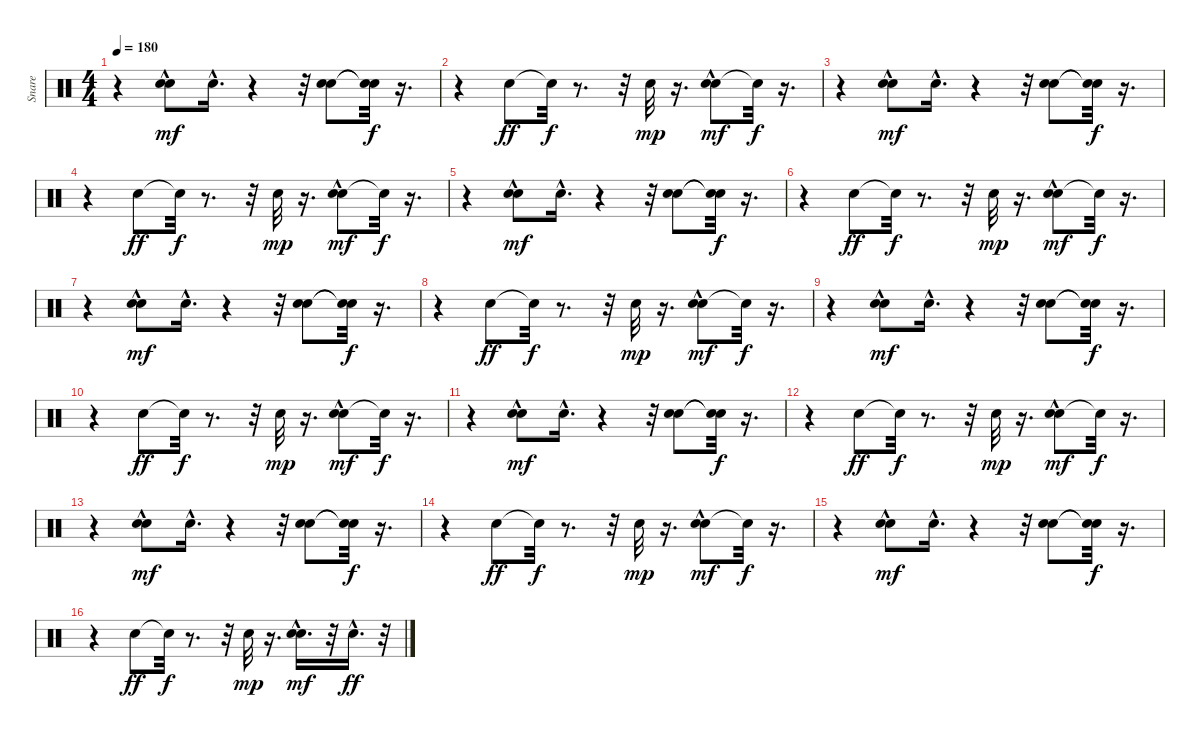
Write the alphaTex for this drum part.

\track ("Snare" "Snare") {instrument percussion}
\staff {score}
\articulation defaults
\ts (4 4)
\tempo 180
\clef neutral
\ks c
r.4{dy f} ("Snare (hit) 2" "Hand Clap (hit)"{hac}).8{dy mf} "Hand Clap (hit)"{hac}.16{d} r.4 r.32 ("Snare (hit) 2" "Hand Clap (hit)").8 ("Snare (hit)"{t} "Snare (hit)"{t}).32{dy f} r.16{d} |
r.4 "Snare (hit) 2".8{dy ff} "Snare (hit)"{t}.32{dy f} r.8{d} r.32 "Hand Clap (hit)".32{dy mp} r.16{d} ("Snare (hit) 2" "Hand Clap (hit)"{hac}).8{dy mf} "Snare (hit)"{t}.32{dy f} r.16{d} |
r.4 ("Snare (hit) 2" "Hand Clap (hit)"{hac}).8{dy mf} "Hand Clap (hit)"{hac}.16{d} r.4 r.32 ("Snare (hit) 2" "Hand Clap (hit)").8 ("Snare (hit)"{t} "Snare (hit)"{t}).32{dy f} r.16{d} |
r.4 "Snare (hit) 2".8{dy ff} "Snare (hit)"{t}.32{dy f} r.8{d} r.32 "Hand Clap (hit)".32{dy mp} r.16{d} ("Snare (hit) 2" "Hand Clap (hit)"{hac}).8{dy mf} "Snare (hit)"{t}.32{dy f} r.16{d} |
r.4 ("Snare (hit) 2" "Hand Clap (hit)"{hac}).8{dy mf} "Hand Clap (hit)"{hac}.16{d} r.4 r.32 ("Snare (hit) 2" "Hand Clap (hit)").8 ("Snare (hit)"{t} "Snare (hit)"{t}).32{dy f} r.16{d} |
r.4 "Snare (hit) 2".8{dy ff} "Snare (hit)"{t}.32{dy f} r.8{d} r.32 "Hand Clap (hit)".32{dy mp} r.16{d} ("Snare (hit) 2" "Hand Clap (hit)"{hac}).8{dy mf} "Snare (hit)"{t}.32{dy f} r.16{d} |
r.4 ("Snare (hit) 2" "Hand Clap (hit)"{hac}).8{dy mf} "Hand Clap (hit)"{hac}.16{d} r.4 r.32 ("Snare (hit) 2" "Hand Clap (hit)").8 ("Snare (hit)"{t} "Snare (hit)"{t}).32{dy f} r.16{d} |
r.4 "Snare (hit) 2".8{dy ff} "Snare (hit)"{t}.32{dy f} r.8{d} r.32 "Hand Clap (hit)".32{dy mp} r.16{d} ("Snare (hit) 2" "Hand Clap (hit)"{hac}).8{dy mf} "Snare (hit)"{t}.32{dy f} r.16{d} |
r.4 ("Snare (hit) 2" "Hand Clap (hit)"{hac}).8{dy mf} "Hand Clap (hit)"{hac}.16{d} r.4 r.32 ("Snare (hit) 2" "Hand Clap (hit)").8 ("Snare (hit)"{t} "Snare (hit)"{t}).32{dy f} r.16{d} |
r.4 "Snare (hit) 2".8{dy ff} "Snare (hit)"{t}.32{dy f} r.8{d} r.32 "Hand Clap (hit)".32{dy mp} r.16{d} ("Snare (hit) 2" "Hand Clap (hit)"{hac}).8{dy mf} "Snare (hit)"{t}.32{dy f} r.16{d} |
r.4 ("Snare (hit) 2" "Hand Clap (hit)"{hac}).8{dy mf} "Hand Clap (hit)"{hac}.16{d} r.4 r.32 ("Snare (hit) 2" "Hand Clap (hit)").8 ("Snare (hit)"{t} "Snare (hit)"{t}).32{dy f} r.16{d} |
r.4 "Snare (hit) 2".8{dy ff} "Snare (hit)"{t}.32{dy f} r.8{d} r.32 "Hand Clap (hit)".32{dy mp} r.16{d} ("Snare (hit) 2" "Hand Clap (hit)"{hac}).8{dy mf} "Snare (hit)"{t}.32{dy f} r.16{d} |
r.4 ("Snare (hit) 2" "Hand Clap (hit)"{hac}).8{dy mf} "Hand Clap (hit)"{hac}.16{d} r.4 r.32 ("Snare (hit) 2" "Hand Clap (hit)").8 ("Snare (hit)"{t} "Snare (hit)"{t}).32{dy f} r.16{d} |
r.4 "Snare (hit) 2".8{dy ff} "Snare (hit)"{t}.32{dy f} r.8{d} r.32 "Hand Clap (hit)".32{dy mp} r.16{d} ("Snare (hit) 2" "Hand Clap (hit)"{hac}).8{dy mf} "Snare (hit)"{t}.32{dy f} r.16{d} |
r.4 ("Snare (hit) 2" "Hand Clap (hit)"{hac}).8{dy mf} "Hand Clap (hit)"{hac}.16{d} r.4 r.32 ("Snare (hit) 2" "Hand Clap (hit)").8 ("Snare (hit)"{t} "Snare (hit)"{t}).32{dy f} r.16{d} |
r.4 "Snare (hit) 2".8{dy ff} "Snare (hit)"{t}.32{dy f} r.8{d} r.32 "Hand Clap (hit)".32{dy mp} r.16{d} ("Snare (hit) 2"{hac} "Hand Clap (hit)"{hac}).16{d dy mf} r.32 "Snare (hit) 2"{hac}.16{d dy ff} r.32
